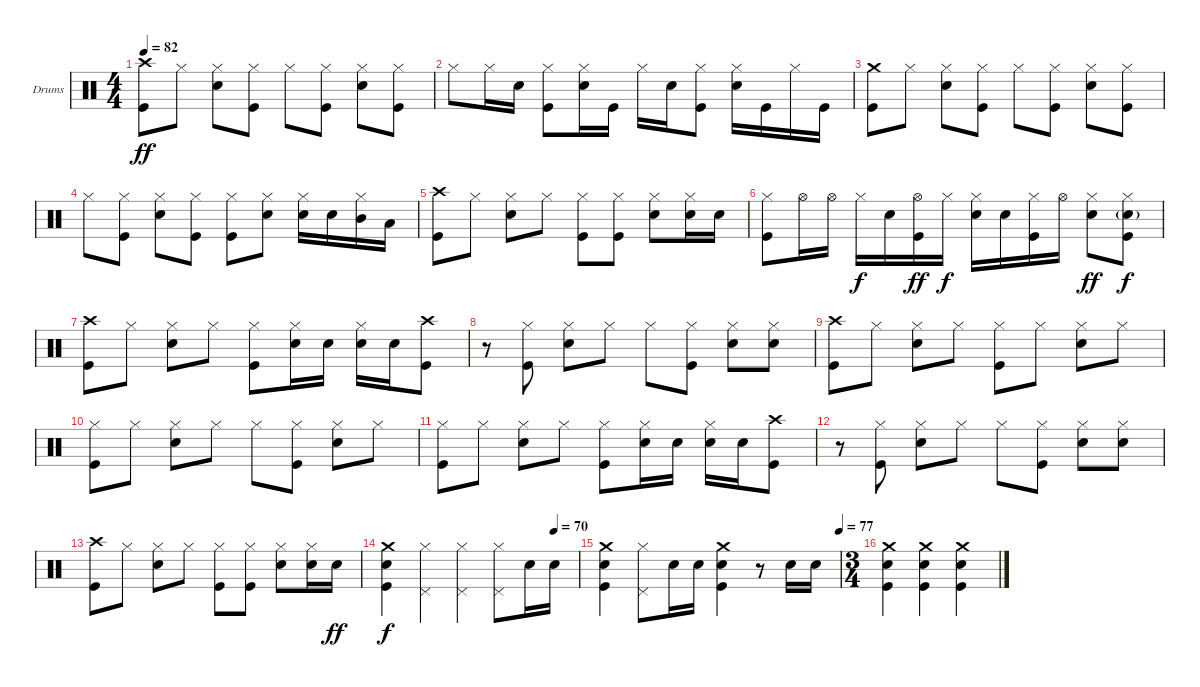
\defaultSystemsLayout 4
\bracketExtendMode groupsimilarinstruments
\firstSystemTrackNameOrientation horizontal
\otherSystemsTrackNameOrientation horizontal
\track ("Drums [Jason]" "Drums") {instrument percussion}
\staff {score}
\articulation defaults
\ts (4 4)
\tempo 82
\clef neutral
\ks c
("Crash high (hit)" "Kick (hit)").8{dy ff} "Hi-Hat (closed)".8 ("Hi-Hat (closed)" "Snare (hit) 2").8 ("Hi-Hat (closed)" "Kick (hit)").8 "Hi-Hat (closed)".8 ("Hi-Hat (closed)" "Kick (hit)").8 ("Hi-Hat (closed)" "Snare (hit) 2").8 ("Hi-Hat (closed)" "Kick (hit)").8 |
"Hi-Hat (closed)".8 "Hi-Hat (closed)".16 "Snare (hit) 2".16 ("Hi-Hat (closed)" "Kick (hit)").8 ("Hi-Hat (closed)" "Snare (hit) 2").16 "Kick (hit)".16 "Hi-Hat (closed)".16 "Snare (hit) 2".16 ("Hi-Hat (closed)" "Kick (hit)").8 ("Hi-Hat (closed)" "Snare (hit) 2").16 "Kick (hit)".16 "Hi-Hat (closed)".16 "Kick (hit)".16 |
("Crash medium (hit)" "Kick (hit)").8 "Hi-Hat (closed)".8 ("Hi-Hat (closed)" "Snare (hit) 2").8 ("Hi-Hat (closed)" "Kick (hit)").8 "Hi-Hat (closed)".8 ("Hi-Hat (closed)" "Kick (hit)").8 ("Hi-Hat (closed)" "Snare (hit) 2").8 ("Hi-Hat (closed)" "Kick (hit)").8 |
"Hi-Hat (closed)".8 ("Hi-Hat (closed)" "Kick (hit)").8 ("Hi-Hat (closed)" "Snare (hit) 2").8 ("Hi-Hat (closed)" "Kick (hit)").8 ("Hi-Hat (closed)" "Kick (hit)").8 ("Hi-Hat (closed)" "Snare (hit) 2").8 ("Hi-Hat (closed)" "Snare (hit) 2").16 "Snare (hit) 2".16 ("Hi-Hat (closed)" "Mid Tom (hit)").16 "Low Tom (hit)".16 |
("Crash high (hit)" "Kick (hit)").8 "Hi-Hat (closed)".8 ("Hi-Hat (closed)" "Snare (hit) 2").8 "Hi-Hat (closed)".8 ("Hi-Hat (closed)" "Kick (hit)").8 ("Hi-Hat (closed)" "Kick (hit)").8 ("Hi-Hat (closed)" "Snare (hit) 2").8 ("Hi-Hat (closed)" "Snare (hit) 2").16 "Snare (hit) 2".16 |
("Hi-Hat (closed)" "Kick (hit)").8 "Hi-Hat (open)".16 "Hi-Hat (open)".16 "Hi-Hat (closed)".16{dy f} "Snare (hit) 2".16 ("Hi-Hat (open)" "Kick (hit)").16{dy ff} "Hi-Hat (closed)".16{dy f} ("Hi-Hat (closed)" "Snare (hit) 2").16 "Snare (hit) 2".16 ("Hi-Hat (closed)" "Kick (hit)").16 "Hi-Hat (open)".16 ("Hi-Hat (closed)" "Snare (hit) 2").8{dy ff} ("Hi-Hat (closed)" "Snare (hit) 2"{g} "Kick (hit)").8{dy f} |
("Crash high (hit)" "Kick (hit)").8 "Hi-Hat (closed)".8 ("Hi-Hat (closed)" "Snare (hit) 2").8 "Hi-Hat (closed)".8 ("Hi-Hat (closed)" "Kick (hit)").8 ("Hi-Hat (closed)" "Snare (hit) 2").16 "Snare (hit) 2".16 ("Hi-Hat (closed)" "Snare (hit) 2").16 "Snare (hit) 2".16 ("Crash high (hit)" "Kick (hit)").8 |
r.8 ("Hi-Hat (closed)" "Kick (hit)").8 ("Hi-Hat (closed)" "Snare (hit) 2").8 "Hi-Hat (closed)".8 "Hi-Hat (closed)".8 ("Hi-Hat (closed)" "Kick (hit)").8 ("Hi-Hat (closed)" "Snare (hit) 2").8 ("Hi-Hat (closed)" "Snare (hit) 2").8 |
("Crash high (hit)" "Kick (hit)").8 "Hi-Hat (closed)".8 ("Hi-Hat (closed)" "Snare (hit) 2").8 "Hi-Hat (closed)".8 ("Hi-Hat (closed)" "Kick (hit)").8 "Hi-Hat (closed)".8 ("Hi-Hat (closed)" "Snare (hit) 2").8 "Hi-Hat (closed)".8 |
("Hi-Hat (closed)" "Kick (hit)").8 "Hi-Hat (closed)".8 ("Hi-Hat (closed)" "Snare (hit) 2").8 "Hi-Hat (closed)".8 "Hi-Hat (closed)".8 ("Hi-Hat (closed)" "Kick (hit)").8 ("Hi-Hat (closed)" "Snare (hit) 2").8 "Hi-Hat (closed)".8 |
("Hi-Hat (closed)" "Kick (hit)").8 "Hi-Hat (closed)".8 ("Hi-Hat (closed)" "Snare (hit) 2").8 "Hi-Hat (closed)".8 ("Hi-Hat (closed)" "Kick (hit)").8 ("Hi-Hat (closed)" "Snare (hit) 2").16 "Snare (hit) 2".16 ("Hi-Hat (closed)" "Snare (hit) 2").16 "Snare (hit) 2".16 ("Crash high (hit)" "Kick (hit)").8 |
r.8 ("Hi-Hat (closed)" "Kick (hit)").8 ("Hi-Hat (closed)" "Snare (hit) 2").8 "Hi-Hat (closed)".8 "Hi-Hat (closed)".8 ("Hi-Hat (closed)" "Kick (hit)").8 ("Hi-Hat (closed)" "Snare (hit) 2").8 ("Hi-Hat (closed)" "Snare (hit) 2").8 |
("Crash high (hit)" "Kick (hit)").8 "Hi-Hat (closed)".8 ("Hi-Hat (closed)" "Snare (hit) 2").8 "Hi-Hat (closed)".8 ("Hi-Hat (closed)" "Kick (hit)").8 ("Hi-Hat (closed)" "Kick (hit)").8 ("Hi-Hat (closed)" "Snare (hit) 2").8 ("Hi-Hat (closed)" "Snare (hit) 2").16 "Snare (hit) 2".16{dy ff} |
\tempo (70 0.875)
("Crash medium (hit)" "Snare (hit) 2" "Kick (hit)").4{dy f} ("Hi-Hat (closed)" "Pedal Hi-Hat (hit)").4 ("Hi-Hat (closed)" "Pedal Hi-Hat (hit)").4 ("Hi-Hat (closed)" "Pedal Hi-Hat (hit)").8 "Snare (hit) 2".16 "Snare (hit) 2".16 |
\tempo (77 1)
("Crash medium (hit)" "Snare (hit) 2" "Kick (hit)").4 ("Hi-Hat (closed)" "Pedal Hi-Hat (hit)").8 "Snare (hit) 2".16 "Snare (hit) 2".16 ("Crash medium (hit)" "Snare (hit) 2" "Kick (hit)").4 r.8 "Snare (hit) 2".16 "Snare (hit) 2".16 |
\ts (3 4)
("Crash medium (hit)" "Snare (hit) 2" "Kick (hit)").4 ("Crash medium (hit)" "Snare (hit) 2" "Kick (hit)").4 ("Crash medium (hit)" "Snare (hit) 2" "Kick (hit)").4
